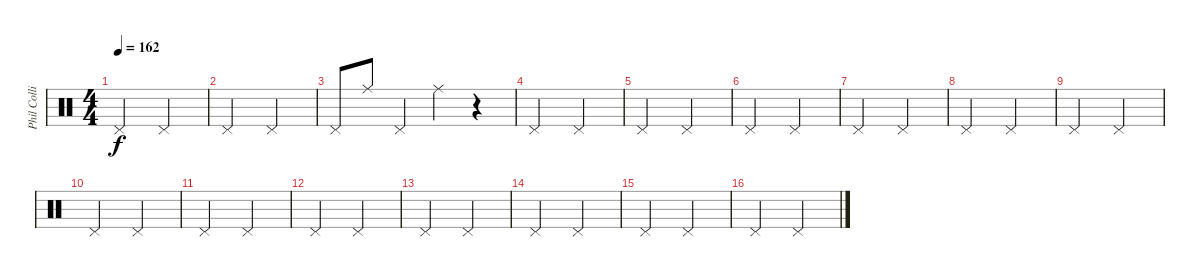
\track ("Phil Collins (drums)" "Phil Colli") {instrument percussion}
\staff {score}
\articulation defaults
\ts (4 4)
\tempo 162
\clef neutral
\ks c "Pedal Hi-Hat (hit)".2{dy f} "Pedal Hi-Hat (hit)".2
|
"Pedal Hi-Hat (hit)".2 "Pedal Hi-Hat (hit)".2 |
"Pedal Hi-Hat (hit)".8 "Ride (middle)".8 "Pedal Hi-Hat (hit)".4 "Ride (middle)".4 r.4 |
"Pedal Hi-Hat (hit)".2 "Pedal Hi-Hat (hit)".2 |
"Pedal Hi-Hat (hit)".2 "Pedal Hi-Hat (hit)".2 |
"Pedal Hi-Hat (hit)".2 "Pedal Hi-Hat (hit)".2 |
"Pedal Hi-Hat (hit)".2 "Pedal Hi-Hat (hit)".2 |
"Pedal Hi-Hat (hit)".2 "Pedal Hi-Hat (hit)".2 |
"Pedal Hi-Hat (hit)".2 "Pedal Hi-Hat (hit)".2 |
"Pedal Hi-Hat (hit)".2 "Pedal Hi-Hat (hit)".2 |
"Pedal Hi-Hat (hit)".2 "Pedal Hi-Hat (hit)".2 |
"Pedal Hi-Hat (hit)".2 "Pedal Hi-Hat (hit)".2 |
"Pedal Hi-Hat (hit)".2 "Pedal Hi-Hat (hit)".2 |
"Pedal Hi-Hat (hit)".2 "Pedal Hi-Hat (hit)".2 |
"Pedal Hi-Hat (hit)".2 "Pedal Hi-Hat (hit)".2 |
"Pedal Hi-Hat (hit)".2 "Pedal Hi-Hat (hit)".2
